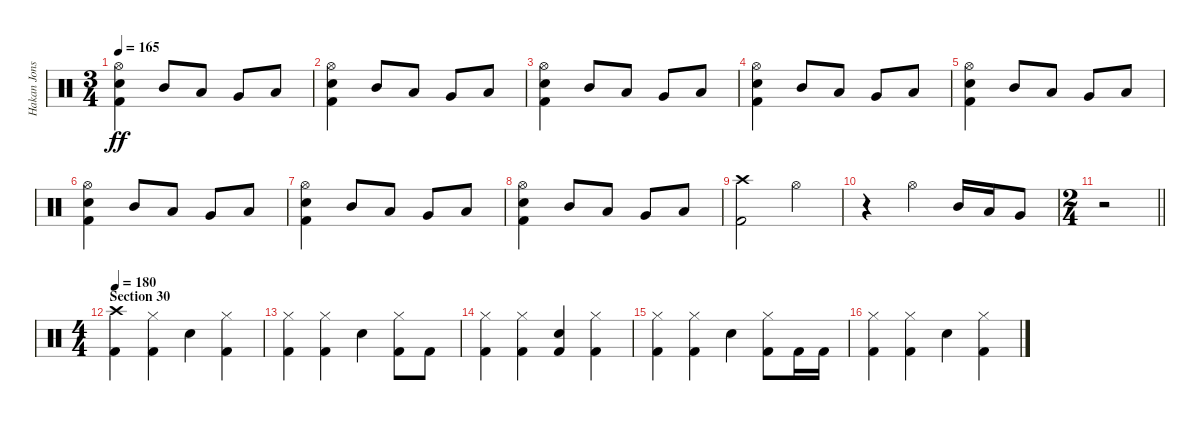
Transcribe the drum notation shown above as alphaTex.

\track ("Hakan Jonsson" "Hakan Jons") {instrument percussion}
\staff {score}
\articulation defaults
\ts (3 4)
\tempo 165
\clef neutral
\ks c
("Hi-Hat (open)" "Electric Snare (hit)" "Kick (hit) 2").4{dy ff} "Mid Tom (hit)".8 "Low Tom (hit)".8 "Very Low Tom (hit)".8 "Low Floor Tom (hit)".8 |
("Hi-Hat (open)" "Electric Snare (hit)" "Kick (hit) 2").4 "Mid Tom (hit)".8 "Low Tom (hit)".8 "Very Low Tom (hit)".8 "Low Floor Tom (hit)".8 |
("Hi-Hat (open)" "Electric Snare (hit)" "Kick (hit) 2").4 "Mid Tom (hit)".8 "Low Tom (hit)".8 "Very Low Tom (hit)".8 "Low Floor Tom (hit)".8 |
("Hi-Hat (open)" "Electric Snare (hit)" "Kick (hit) 2").4 "Mid Tom (hit)".8 "Low Tom (hit)".8 "Very Low Tom (hit)".8 "Low Floor Tom (hit)".8 |
("Hi-Hat (open)" "Electric Snare (hit)" "Kick (hit) 2").4 "Mid Tom (hit)".8 "Low Tom (hit)".8 "Very Low Tom (hit)".8 "Low Floor Tom (hit)".8 |
("Hi-Hat (open)" "Electric Snare (hit)" "Kick (hit) 2").4 "Mid Tom (hit)".8 "Low Tom (hit)".8 "Very Low Tom (hit)".8 "Low Floor Tom (hit)".8 |
("Hi-Hat (open)" "Electric Snare (hit)" "Kick (hit) 2").4 "Mid Tom (hit)".8 "Low Tom (hit)".8 "Very Low Tom (hit)".8 "Low Floor Tom (hit)".8 |
("Hi-Hat (open)" "Electric Snare (hit)" "Kick (hit) 2").4 "Mid Tom (hit)".8 "Low Tom (hit)".8 "Very Low Tom (hit)".8 "Low Floor Tom (hit)".8 |
("Crash high (hit)" "Kick (hit) 2").2 "Hi-Hat (open)".4 |
r.4 "Hi-Hat (open)".4 "Mid Tom (hit)".16 "Low Tom (hit)".16 "Very Low Tom (hit)".8 |
\ts (2 4)
\barLineRight lightlight
r.2 |
\ts (4 4)
\section ("" "Section 30")
\tempo 180
("Crash high (hit)" "Kick (hit) 2").4 ("Hi-Hat (closed)" "Kick (hit) 2").4 "Electric Snare (hit)".4 ("Hi-Hat (closed)" "Kick (hit) 2").4 |
("Hi-Hat (closed)" "Kick (hit) 2").4 ("Hi-Hat (closed)" "Kick (hit) 2").4 "Electric Snare (hit)".4 ("Hi-Hat (closed)" "Kick (hit) 2").8 "Kick (hit) 2".8 |
("Hi-Hat (closed)" "Kick (hit) 2").4 ("Hi-Hat (closed)" "Kick (hit) 2").4 ("Electric Snare (hit)" "Kick (hit) 2").4 ("Hi-Hat (closed)" "Kick (hit) 2").4 |
("Hi-Hat (closed)" "Kick (hit) 2").4 ("Hi-Hat (closed)" "Kick (hit) 2").4 "Electric Snare (hit)".4 ("Hi-Hat (closed)" "Kick (hit) 2").8 "Kick (hit) 2".16 "Kick (hit) 2".16 |
("Hi-Hat (closed)" "Kick (hit) 2").4 ("Hi-Hat (closed)" "Kick (hit) 2").4 "Electric Snare (hit)".4 ("Hi-Hat (closed)" "Kick (hit) 2").4
